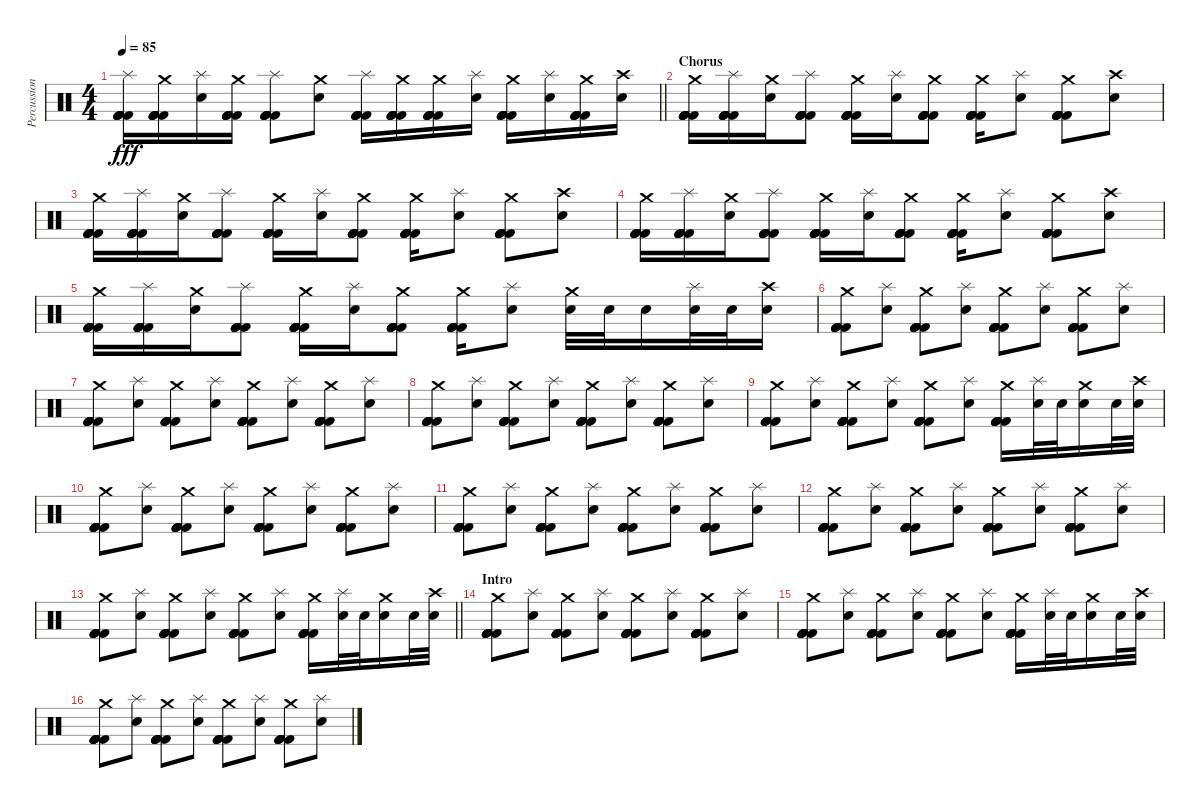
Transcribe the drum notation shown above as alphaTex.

\track ("Percussion" "Percussion") {instrument percussion}
\staff {score}
\articulation defaults
\ts (4 4)
\tempo 85
\clef neutral
\barLineRight lightlight
\ks c
("Splash (hit)" "Kick (hit) 2" "Kick (hit) 2" "Kick (hit) 2" "Kick (hit) 2" "Kick (hit) 2").16{dy fff} ("Crash medium (hit)" "Kick (hit) 2" "Kick (hit) 2" "Kick (hit) 2" "Kick (hit) 2" "Kick (hit) 2").16 ("Splash (hit)" "Snare (hit) 2").16 ("Crash medium (hit)" "Kick (hit) 2" "Kick (hit) 2" "Kick (hit) 2" "Kick (hit) 2" "Kick (hit) 2").16 ("Splash (hit)" "Kick (hit) 2" "Kick (hit) 2" "Kick (hit) 2" "Kick (hit) 2" "Kick (hit) 2").8 ("Crash medium (hit)" "Snare (hit) 2").8 ("Splash (hit)" "Kick (hit) 2" "Kick (hit) 2" "Kick (hit) 2" "Kick (hit) 2" "Kick (hit) 2").16 ("Crash medium (hit)" "Kick (hit) 2" "Kick (hit) 2" "Kick (hit) 2" "Kick (hit) 2" "Kick (hit) 2").16 ("Crash medium (hit)" "Kick (hit) 2" "Kick (hit) 2" "Kick (hit) 2" "Kick (hit) 2" "Kick (hit) 2").16 ("Splash (hit)" "Snare (hit) 2").16 ("Crash medium (hit)" "Kick (hit) 2" "Kick (hit) 2" "Kick (hit) 2" "Kick (hit) 2" "Kick (hit) 2").16 ("Splash (hit)" "Snare (hit) 2").16 ("Crash medium (hit)" "Kick (hit) 2" "Kick (hit) 2" "Kick (hit) 2" "Kick (hit) 2" "Kick (hit) 2").16 ("Crash high (hit)" "Snare (hit) 2").16 |
\section ("" "Chorus")
("Crash medium (hit)" "Kick (hit) 2" "Kick (hit) 2" "Kick (hit) 2" "Kick (hit) 2" "Kick (hit) 2").16 ("Splash (hit)" "Kick (hit) 2" "Kick (hit) 2" "Kick (hit) 2" "Kick (hit) 2" "Kick (hit) 2").16 ("Crash medium (hit)" "Snare (hit) 2").16 ("Splash (hit)" "Kick (hit) 2" "Kick (hit) 2" "Kick (hit) 2" "Kick (hit) 2" "Kick (hit) 2").8 ("Crash medium (hit)" "Kick (hit) 2" "Kick (hit) 2" "Kick (hit) 2" "Kick (hit) 2" "Kick (hit) 2").16 ("Splash (hit)" "Snare (hit) 2").16 ("Crash medium (hit)" "Kick (hit) 2" "Kick (hit) 2" "Kick (hit) 2" "Kick (hit) 2" "Kick (hit) 2").8 ("Crash medium (hit)" "Kick (hit) 2" "Kick (hit) 2" "Kick (hit) 2" "Kick (hit) 2" "Kick (hit) 2").16 ("Splash (hit)" "Snare (hit) 2").8 ("Crash medium (hit)" "Kick (hit) 2" "Kick (hit) 2" "Kick (hit) 2" "Kick (hit) 2" "Kick (hit) 2").8 ("Crash high (hit)" "Snare (hit) 2").8 |
("Crash medium (hit)" "Kick (hit) 2" "Kick (hit) 2" "Kick (hit) 2" "Kick (hit) 2" "Kick (hit) 2").16 ("Splash (hit)" "Kick (hit) 2" "Kick (hit) 2" "Kick (hit) 2" "Kick (hit) 2" "Kick (hit) 2").16 ("Crash medium (hit)" "Snare (hit) 2").16 ("Splash (hit)" "Kick (hit) 2" "Kick (hit) 2" "Kick (hit) 2" "Kick (hit) 2" "Kick (hit) 2").8 ("Crash medium (hit)" "Kick (hit) 2" "Kick (hit) 2" "Kick (hit) 2" "Kick (hit) 2" "Kick (hit) 2").16 ("Splash (hit)" "Snare (hit) 2").16 ("Crash medium (hit)" "Kick (hit) 2" "Kick (hit) 2" "Kick (hit) 2" "Kick (hit) 2" "Kick (hit) 2").8 ("Crash medium (hit)" "Kick (hit) 2" "Kick (hit) 2" "Kick (hit) 2" "Kick (hit) 2" "Kick (hit) 2").16 ("Splash (hit)" "Snare (hit) 2").8 ("Crash medium (hit)" "Kick (hit) 2" "Kick (hit) 2" "Kick (hit) 2" "Kick (hit) 2" "Kick (hit) 2").8 ("Crash high (hit)" "Snare (hit) 2").8 |
("Crash medium (hit)" "Kick (hit) 2" "Kick (hit) 2" "Kick (hit) 2" "Kick (hit) 2" "Kick (hit) 2").16 ("Splash (hit)" "Kick (hit) 2" "Kick (hit) 2" "Kick (hit) 2" "Kick (hit) 2" "Kick (hit) 2").16 ("Crash medium (hit)" "Snare (hit) 2").16 ("Splash (hit)" "Kick (hit) 2" "Kick (hit) 2" "Kick (hit) 2" "Kick (hit) 2" "Kick (hit) 2").8 ("Crash medium (hit)" "Kick (hit) 2" "Kick (hit) 2" "Kick (hit) 2" "Kick (hit) 2" "Kick (hit) 2").16 ("Splash (hit)" "Snare (hit) 2").16 ("Crash medium (hit)" "Kick (hit) 2" "Kick (hit) 2" "Kick (hit) 2" "Kick (hit) 2" "Kick (hit) 2").8 ("Crash medium (hit)" "Kick (hit) 2" "Kick (hit) 2" "Kick (hit) 2" "Kick (hit) 2" "Kick (hit) 2").16 ("Splash (hit)" "Snare (hit) 2").8 ("Crash medium (hit)" "Kick (hit) 2" "Kick (hit) 2" "Kick (hit) 2" "Kick (hit) 2" "Kick (hit) 2").8 ("Crash high (hit)" "Snare (hit) 2").8 |
("Crash medium (hit)" "Kick (hit) 2" "Kick (hit) 2" "Kick (hit) 2" "Kick (hit) 2" "Kick (hit) 2").16 ("Splash (hit)" "Kick (hit) 2" "Kick (hit) 2" "Kick (hit) 2" "Kick (hit) 2" "Kick (hit) 2").16 ("Crash medium (hit)" "Snare (hit) 2").16 ("Splash (hit)" "Kick (hit) 2" "Kick (hit) 2" "Kick (hit) 2" "Kick (hit) 2" "Kick (hit) 2").8 ("Crash medium (hit)" "Kick (hit) 2" "Kick (hit) 2" "Kick (hit) 2" "Kick (hit) 2" "Kick (hit) 2").16 ("Splash (hit)" "Snare (hit) 2").16 ("Crash medium (hit)" "Kick (hit) 2" "Kick (hit) 2" "Kick (hit) 2" "Kick (hit) 2" "Kick (hit) 2").8 ("Crash medium (hit)" "Kick (hit) 2" "Kick (hit) 2" "Kick (hit) 2" "Kick (hit) 2" "Kick (hit) 2").16 ("Splash (hit)" "Snare (hit) 2").8 ("Crash medium (hit)" "Snare (hit) 2").32 "Snare (hit) 2".32 "Electric Snare (hit)".16 ("Splash (hit)" "Snare (hit) 2").32 "Snare (hit) 2".32 ("Crash high (hit)" "Electric Snare (hit)").16 |
("Crash medium (hit)" "Kick (hit) 2" "Kick (hit) 2" "Kick (hit) 2" "Kick (hit) 2" "Kick (hit) 2").8 ("Splash (hit)" "Snare (hit) 2").8 ("Crash medium (hit)" "Kick (hit) 2" "Kick (hit) 2" "Kick (hit) 2" "Kick (hit) 2" "Kick (hit) 2").8 ("Splash (hit)" "Snare (hit) 2").8 ("Crash medium (hit)" "Kick (hit) 2" "Kick (hit) 2" "Kick (hit) 2" "Kick (hit) 2" "Kick (hit) 2").8 ("Splash (hit)" "Snare (hit) 2").8 ("Crash medium (hit)" "Kick (hit) 2" "Kick (hit) 2" "Kick (hit) 2" "Kick (hit) 2" "Kick (hit) 2").8 ("Splash (hit)" "Snare (hit) 2").8 |
("Crash medium (hit)" "Kick (hit) 2" "Kick (hit) 2" "Kick (hit) 2" "Kick (hit) 2" "Kick (hit) 2").8 ("Splash (hit)" "Snare (hit) 2").8 ("Crash medium (hit)" "Kick (hit) 2" "Kick (hit) 2" "Kick (hit) 2" "Kick (hit) 2" "Kick (hit) 2").8 ("Splash (hit)" "Snare (hit) 2").8 ("Crash medium (hit)" "Kick (hit) 2" "Kick (hit) 2" "Kick (hit) 2" "Kick (hit) 2" "Kick (hit) 2").8 ("Splash (hit)" "Snare (hit) 2").8 ("Crash medium (hit)" "Kick (hit) 2" "Kick (hit) 2" "Kick (hit) 2" "Kick (hit) 2" "Kick (hit) 2").8 ("Splash (hit)" "Snare (hit) 2").8 |
("Crash medium (hit)" "Kick (hit) 2" "Kick (hit) 2" "Kick (hit) 2" "Kick (hit) 2" "Kick (hit) 2").8 ("Splash (hit)" "Snare (hit) 2").8 ("Crash medium (hit)" "Kick (hit) 2" "Kick (hit) 2" "Kick (hit) 2" "Kick (hit) 2" "Kick (hit) 2").8 ("Splash (hit)" "Snare (hit) 2").8 ("Crash medium (hit)" "Kick (hit) 2" "Kick (hit) 2" "Kick (hit) 2" "Kick (hit) 2" "Kick (hit) 2").8 ("Splash (hit)" "Snare (hit) 2").8 ("Crash medium (hit)" "Kick (hit) 2" "Kick (hit) 2" "Kick (hit) 2" "Kick (hit) 2" "Kick (hit) 2").8 ("Splash (hit)" "Snare (hit) 2").8 |
("Crash medium (hit)" "Kick (hit) 2" "Kick (hit) 2" "Kick (hit) 2" "Kick (hit) 2" "Kick (hit) 2").8 ("Splash (hit)" "Snare (hit) 2").8 ("Crash medium (hit)" "Kick (hit) 2" "Kick (hit) 2" "Kick (hit) 2" "Kick (hit) 2" "Kick (hit) 2").8 ("Splash (hit)" "Snare (hit) 2").8 ("Crash medium (hit)" "Kick (hit) 2" "Kick (hit) 2" "Kick (hit) 2" "Kick (hit) 2" "Kick (hit) 2").8 ("Splash (hit)" "Snare (hit) 2").8 ("Crash medium (hit)" "Kick (hit) 2" "Kick (hit) 2" "Kick (hit) 2" "Kick (hit) 2" "Kick (hit) 2").16 ("Splash (hit)" "Snare (hit) 2").32 "Snare (hit) 2".32 ("Crash medium (hit)" "Snare (hit) 2").16 "Snare (hit) 2".32 ("Crash high (hit)" "Snare (hit) 2").32 |
("Crash medium (hit)" "Kick (hit) 2" "Kick (hit) 2" "Kick (hit) 2" "Kick (hit) 2" "Kick (hit) 2").8 ("Splash (hit)" "Snare (hit) 2").8 ("Crash medium (hit)" "Kick (hit) 2" "Kick (hit) 2" "Kick (hit) 2" "Kick (hit) 2" "Kick (hit) 2").8 ("Splash (hit)" "Snare (hit) 2").8 ("Crash medium (hit)" "Kick (hit) 2" "Kick (hit) 2" "Kick (hit) 2" "Kick (hit) 2" "Kick (hit) 2").8 ("Splash (hit)" "Snare (hit) 2").8 ("Crash medium (hit)" "Kick (hit) 2" "Kick (hit) 2" "Kick (hit) 2" "Kick (hit) 2" "Kick (hit) 2").8 ("Splash (hit)" "Snare (hit) 2").8 |
("Crash medium (hit)" "Kick (hit) 2" "Kick (hit) 2" "Kick (hit) 2" "Kick (hit) 2" "Kick (hit) 2").8 ("Splash (hit)" "Snare (hit) 2").8 ("Crash medium (hit)" "Kick (hit) 2" "Kick (hit) 2" "Kick (hit) 2" "Kick (hit) 2" "Kick (hit) 2").8 ("Splash (hit)" "Snare (hit) 2").8 ("Crash medium (hit)" "Kick (hit) 2" "Kick (hit) 2" "Kick (hit) 2" "Kick (hit) 2" "Kick (hit) 2").8 ("Splash (hit)" "Snare (hit) 2").8 ("Crash medium (hit)" "Kick (hit) 2" "Kick (hit) 2" "Kick (hit) 2" "Kick (hit) 2" "Kick (hit) 2").8 ("Splash (hit)" "Snare (hit) 2").8 |
("Crash medium (hit)" "Kick (hit) 2" "Kick (hit) 2" "Kick (hit) 2" "Kick (hit) 2" "Kick (hit) 2").8 ("Splash (hit)" "Snare (hit) 2").8 ("Crash medium (hit)" "Kick (hit) 2" "Kick (hit) 2" "Kick (hit) 2" "Kick (hit) 2" "Kick (hit) 2").8 ("Splash (hit)" "Snare (hit) 2").8 ("Crash medium (hit)" "Kick (hit) 2" "Kick (hit) 2" "Kick (hit) 2" "Kick (hit) 2" "Kick (hit) 2").8 ("Splash (hit)" "Snare (hit) 2").8 ("Crash medium (hit)" "Kick (hit) 2" "Kick (hit) 2" "Kick (hit) 2" "Kick (hit) 2" "Kick (hit) 2").8 ("Splash (hit)" "Snare (hit) 2").8 |
\barLineRight lightlight
("Crash medium (hit)" "Kick (hit) 2" "Kick (hit) 2" "Kick (hit) 2" "Kick (hit) 2" "Kick (hit) 2").8 ("Splash (hit)" "Snare (hit) 2").8 ("Crash medium (hit)" "Kick (hit) 2" "Kick (hit) 2" "Kick (hit) 2" "Kick (hit) 2" "Kick (hit) 2").8 ("Splash (hit)" "Snare (hit) 2").8 ("Crash medium (hit)" "Kick (hit) 2" "Kick (hit) 2" "Kick (hit) 2" "Kick (hit) 2" "Kick (hit) 2").8 ("Splash (hit)" "Snare (hit) 2").8 ("Crash medium (hit)" "Kick (hit) 2" "Kick (hit) 2" "Kick (hit) 2" "Kick (hit) 2" "Kick (hit) 2").16 ("Splash (hit)" "Snare (hit) 2").32 "Snare (hit) 2".32 ("Crash medium (hit)" "Snare (hit) 2").16 "Snare (hit) 2".32 ("Crash high (hit)" "Snare (hit) 2").32 |
\section ("" "Intro")
("Crash medium (hit)" "Kick (hit) 2" "Kick (hit) 2" "Kick (hit) 2" "Kick (hit) 2" "Kick (hit) 2").8 ("Splash (hit)" "Snare (hit) 2").8 ("Crash medium (hit)" "Kick (hit) 2" "Kick (hit) 2" "Kick (hit) 2" "Kick (hit) 2" "Kick (hit) 2").8 ("Splash (hit)" "Snare (hit) 2").8 ("Crash medium (hit)" "Kick (hit) 2" "Kick (hit) 2" "Kick (hit) 2" "Kick (hit) 2" "Kick (hit) 2").8 ("Splash (hit)" "Snare (hit) 2").8 ("Crash medium (hit)" "Kick (hit) 2" "Kick (hit) 2" "Kick (hit) 2" "Kick (hit) 2" "Kick (hit) 2").8 ("Splash (hit)" "Snare (hit) 2").8 |
("Crash medium (hit)" "Kick (hit) 2" "Kick (hit) 2" "Kick (hit) 2" "Kick (hit) 2" "Kick (hit) 2").8 ("Splash (hit)" "Snare (hit) 2").8 ("Crash medium (hit)" "Kick (hit) 2" "Kick (hit) 2" "Kick (hit) 2" "Kick (hit) 2" "Kick (hit) 2").8 ("Splash (hit)" "Snare (hit) 2").8 ("Crash medium (hit)" "Kick (hit) 2" "Kick (hit) 2" "Kick (hit) 2" "Kick (hit) 2" "Kick (hit) 2").8 ("Splash (hit)" "Snare (hit) 2").8 ("Crash medium (hit)" "Kick (hit) 2" "Kick (hit) 2" "Kick (hit) 2" "Kick (hit) 2" "Kick (hit) 2").16 ("Splash (hit)" "Snare (hit) 2").32 "Snare (hit) 2".32 ("Crash medium (hit)" "Snare (hit) 2").16 "Snare (hit) 2".32 ("Crash high (hit)" "Snare (hit) 2").32 |
("Crash medium (hit)" "Kick (hit) 2" "Kick (hit) 2" "Kick (hit) 2" "Kick (hit) 2" "Kick (hit) 2").8 ("Splash (hit)" "Snare (hit) 2").8 ("Crash medium (hit)" "Kick (hit) 2" "Kick (hit) 2" "Kick (hit) 2" "Kick (hit) 2" "Kick (hit) 2").8 ("Splash (hit)" "Snare (hit) 2").8 ("Crash medium (hit)" "Kick (hit) 2" "Kick (hit) 2" "Kick (hit) 2" "Kick (hit) 2" "Kick (hit) 2").8 ("Splash (hit)" "Snare (hit) 2").8 ("Crash medium (hit)" "Kick (hit) 2" "Kick (hit) 2" "Kick (hit) 2" "Kick (hit) 2" "Kick (hit) 2").8 ("Splash (hit)" "Snare (hit) 2").8
